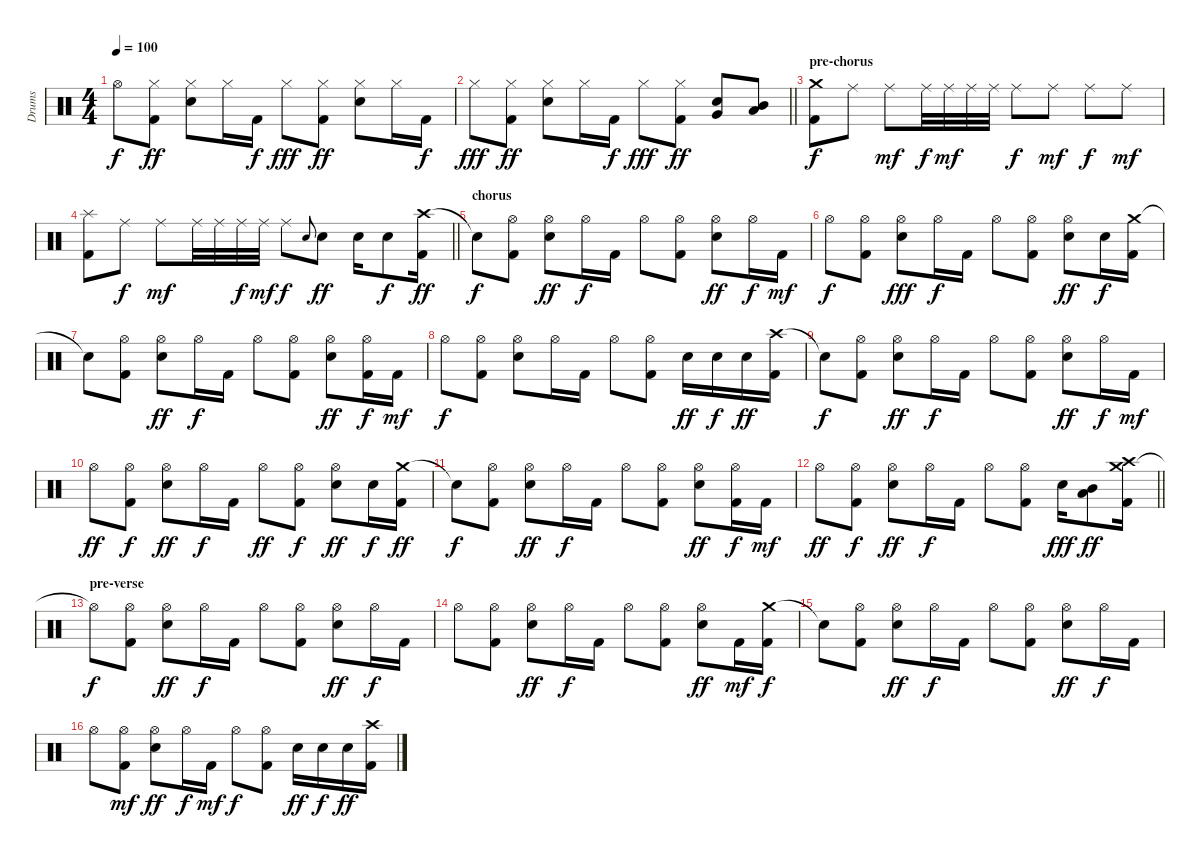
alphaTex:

\track ("Drums" "Drums") {instrument percussion}
\staff {score}
\articulation defaults
\ts (4 4)
\tempo 100
\clef neutral
\ks c "Hi-Hat (open)"{t}.8{dy f}
("Hi-Hat (closed)" "Kick (hit) 2").8{dy ff} ("Hi-Hat (closed)" "Snare (hit) 2").8 "Hi-Hat (closed)".16 "Kick (hit) 2".16{dy f} "Hi-Hat (closed)".8{dy fff} ("Hi-Hat (closed)" "Kick (hit) 2").8{dy ff} ("Hi-Hat (closed)" "Snare (hit) 2").8 "Hi-Hat (closed)".16 "Kick (hit) 2".16{dy f} |
\barLineRight lightlight "Hi-Hat (closed)".8{dy fff}
("Hi-Hat (closed)" "Kick (hit) 2").8{dy ff} ("Hi-Hat (closed)" "Snare (hit) 2").8 "Hi-Hat (closed)".16 "Kick (hit) 2".16{dy f} "Hi-Hat (closed)".8{dy fff} ("Hi-Hat (closed)" "Kick (hit) 2").8{dy ff} ("Very Low Tom (hit)" "Snare (hit) 2").8 ("Low Tom (hit)" "Mid Tom (hit)").8 |
\section ("" "pre-chorus")
("Crash medium (hit)" "Kick (hit) 2").8{dy f} "Ride (middle)".8 "Ride (middle)".8{dy mf} "Ride (middle)".32{dy f} "Ride (middle)".32{dy mf} "Ride (middle)".32 "Ride (middle)".32 "Ride (middle)".8{dy f} "Ride (middle)".8{dy mf} "Ride (middle)".8{dy f} "Ride (middle)".8{dy mf} |
\barLineRight lightlight
("Splash (hit)" "Kick (hit) 2").8 "Ride (middle)".8{dy f} "Ride (middle)".8{dy mf} "Ride (middle)".32 "Ride (middle)".32 "Ride (middle)".32{dy f} "Ride (middle)".32{dy mf} "Ride (middle)".8{dy f} "Snare (hit) 2".8{gr onbeat} "Snare (hit) 2".8{dy ff} "Snare (hit) 2".16 "Snare (hit) 2".8{dy f} ("Crash high (hit)" "Kick (hit) 2").16{dy ff} |
\section ("" "chorus")
"Snare (hit)"{t}.8{dy f} ("Hi-Hat (open)" "Kick (hit) 2").8 ("Hi-Hat (open)" "Snare (hit) 2").8{dy ff} "Hi-Hat (open)".16{dy f} "Kick (hit) 2".16 "Hi-Hat (open)".8 ("Hi-Hat (open)" "Kick (hit) 2").8 ("Hi-Hat (open)" "Snare (hit) 2").8{dy ff} "Hi-Hat (open)".16{dy f} "Kick (hit) 2".16{dy mf} |
"Hi-Hat (open)".8{dy f} ("Hi-Hat (open)" "Kick (hit) 2").8 ("Hi-Hat (open)" "Snare (hit) 2").8{dy fff} "Hi-Hat (open)".16{dy f} "Kick (hit) 2".16 "Hi-Hat (open)".8 ("Hi-Hat (open)" "Kick (hit) 2").8 ("Hi-Hat (open)" "Snare (hit) 2").8{dy ff} "Snare (hit) 2".16{dy f} ("Crash medium (hit)" "Kick (hit) 2").16 |
"Snare (hit)"{t}.8 ("Hi-Hat (open)" "Kick (hit) 2").8 ("Hi-Hat (open)" "Snare (hit) 2").8{dy ff} "Hi-Hat (open)".16{dy f} "Kick (hit) 2".16 "Hi-Hat (open)".8 ("Hi-Hat (open)" "Kick (hit) 2").8 ("Hi-Hat (open)" "Snare (hit) 2").8{dy ff} ("Hi-Hat (open)" "Kick (hit) 2").16{dy f} "Kick (hit) 2".16{dy mf} |
"Hi-Hat (open)".8{dy f} ("Hi-Hat (open)" "Kick (hit) 2").8 ("Hi-Hat (open)" "Snare (hit) 2").8 "Hi-Hat (open)".16 "Kick (hit) 2".16 "Hi-Hat (open)".8 ("Hi-Hat (open)" "Kick (hit) 2").8 "Snare (hit) 2".16{dy ff} "Snare (hit) 2".16{dy f} "Snare (hit) 2".16{dy ff} ("Crash high (hit)" "Kick (hit) 2").16 |
"Snare (hit)"{t}.8{dy f} ("Hi-Hat (open)" "Kick (hit) 2").8 ("Hi-Hat (open)" "Snare (hit) 2").8{dy ff} "Hi-Hat (open)".16{dy f} "Kick (hit) 2".16 "Hi-Hat (open)".8 ("Hi-Hat (open)" "Kick (hit) 2").8 ("Hi-Hat (open)" "Snare (hit) 2").8{dy ff} "Hi-Hat (open)".16{dy f} "Kick (hit) 2".16{dy mf} |
"Hi-Hat (open)".8{dy ff} ("Hi-Hat (open)" "Kick (hit) 2").8{dy f} ("Hi-Hat (open)" "Snare (hit) 2").8{dy ff} "Hi-Hat (open)".16{dy f} "Kick (hit) 2".16 "Hi-Hat (open)".8{dy ff} ("Hi-Hat (open)" "Kick (hit) 2").8{dy f} ("Hi-Hat (open)" "Snare (hit) 2").8{dy ff} "Snare (hit) 2".16{dy f} ("Crash medium (hit)" "Kick (hit) 2").16{dy ff} |
"Snare (hit)"{t}.8{dy f} ("Hi-Hat (open)" "Kick (hit) 2").8 ("Hi-Hat (open)" "Snare (hit) 2").8{dy ff} "Hi-Hat (open)".16{dy f} "Kick (hit) 2".16 "Hi-Hat (open)".8 ("Hi-Hat (open)" "Kick (hit) 2").8 ("Hi-Hat (open)" "Snare (hit) 2").8{dy ff} ("Hi-Hat (open)" "Kick (hit) 2").16{dy f} "Kick (hit) 2".16{dy mf} |
\barLineRight lightlight "Hi-Hat (open)".8{dy ff}
("Hi-Hat (open)" "Kick (hit) 2").8{dy f} ("Hi-Hat (open)" "Snare (hit) 2").8{dy ff} "Hi-Hat (open)".16{dy f} "Kick (hit) 2".16 "Hi-Hat (open)".8 ("Hi-Hat (open)" "Kick (hit) 2").8 "Snare (hit) 2".16{dy fff} ("Low Tom (hit)" "Mid Tom (hit)").8{dy ff} ("Crash medium (hit)" "Crash high (hit)" "Kick (hit) 2").16 |
\section ("" "pre-verse")
"Hi-Hat (open)"{t}.8{dy f} ("Hi-Hat (open)" "Kick (hit) 2").8 ("Hi-Hat (open)" "Snare (hit) 2").8{dy ff} "Hi-Hat (open)".16{dy f} "Kick (hit) 2".16 "Hi-Hat (open)".8 ("Hi-Hat (open)" "Kick (hit) 2").8 ("Hi-Hat (open)" "Snare (hit) 2").8{dy ff} "Hi-Hat (open)".16{dy f} "Kick (hit) 2".16 |
"Hi-Hat (open)".8 ("Hi-Hat (open)" "Kick (hit) 2").8 ("Hi-Hat (open)" "Snare (hit) 2").8{dy ff} "Hi-Hat (open)".16{dy f} "Kick (hit) 2".16 "Hi-Hat (open)".8 ("Hi-Hat (open)" "Kick (hit) 2").8 ("Hi-Hat (open)" "Snare (hit) 2").8{dy ff} "Kick (hit) 2".16{dy mf} ("Crash medium (hit)" "Kick (hit) 2").16{dy f} |
"Snare (hit)"{t}.8 ("Hi-Hat (open)" "Kick (hit) 2").8 ("Hi-Hat (open)" "Snare (hit) 2").8{dy ff} "Hi-Hat (open)".16{dy f} "Kick (hit) 2".16 "Hi-Hat (open)".8 ("Hi-Hat (open)" "Kick (hit) 2").8 ("Hi-Hat (open)" "Snare (hit) 2").8{dy ff} "Hi-Hat (open)".16{dy f} "Kick (hit) 2".16 |
"Hi-Hat (open)".8 ("Hi-Hat (open)" "Kick (hit) 2").8{dy mf} ("Hi-Hat (open)" "Snare (hit) 2").8{dy ff} "Hi-Hat (open)".16{dy f} "Kick (hit) 2".16{dy mf} "Hi-Hat (open)".8{dy f} ("Hi-Hat (open)" "Kick (hit) 2").8 "Snare (hit) 2".16{dy ff} "Snare (hit) 2".16{dy f} "Snare (hit) 2".16{dy ff} ("Crash high (hit)" "Kick (hit) 2").16
